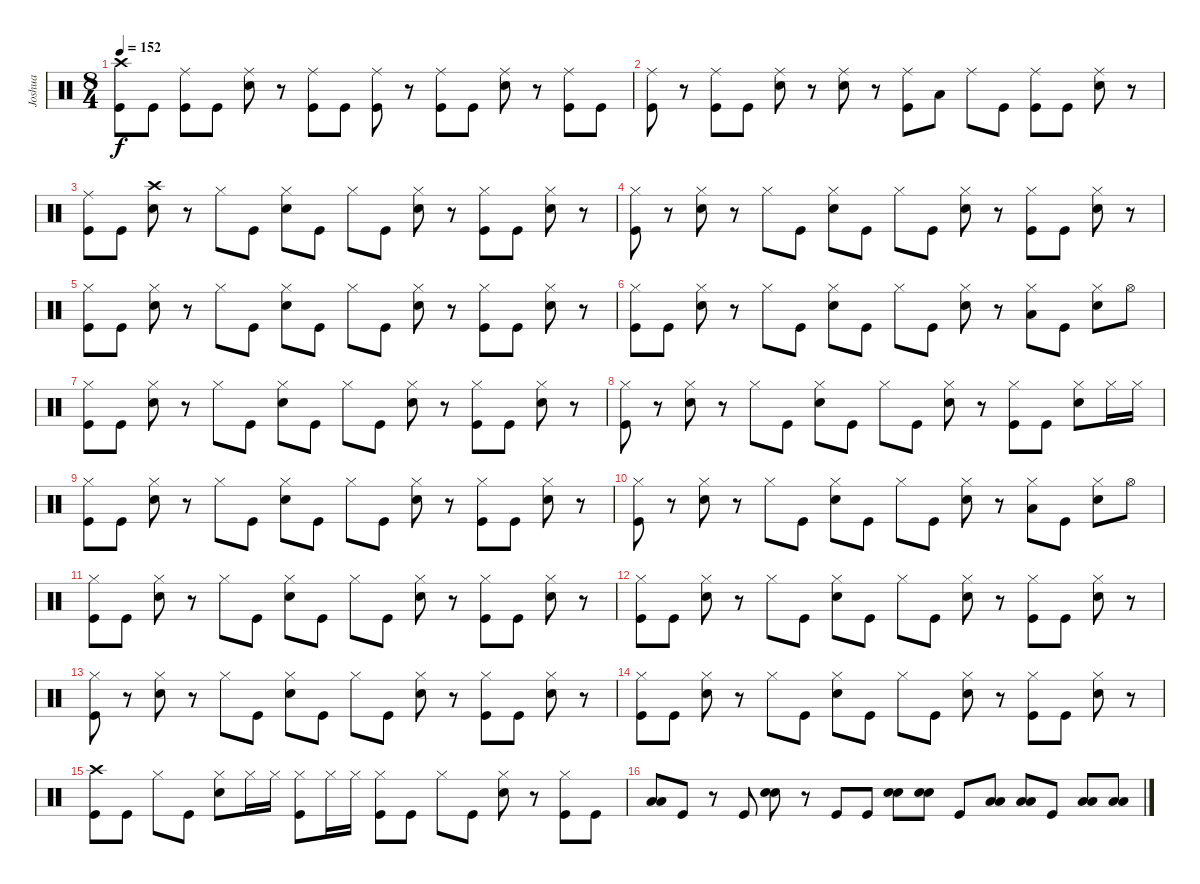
\track ("Joshua" "Joshua") {instrument percussion}
\staff {score}
\articulation defaults
\ts (8 4)
\tempo 152
\clef neutral
\ks c
("Crash high (hit)" "Kick (hit)").8{dy f} "Kick (hit)".8 ("Ride (middle)" "Kick (hit)").8 "Kick (hit)".8 ("Ride (middle)" "Electric Snare (hit)").8 r.8 ("Ride (middle)" "Kick (hit)").8 "Kick (hit)".8 ("Ride (middle)" "Kick (hit)").8 r.8 ("Ride (middle)" "Kick (hit)").8 "Kick (hit)".8 ("Ride (middle)" "Electric Snare (hit)").8 r.8 ("Ride (middle)" "Kick (hit)").8 "Kick (hit)".8 |
("Ride (middle)" "Kick (hit)").8 r.8 ("Ride (middle)" "Kick (hit)").8 "Kick (hit)".8 ("Ride (middle)" "Electric Snare (hit)").8 r.8 ("Ride (middle)" "Electric Snare (hit)").8 r.8 ("Ride (middle)" "Kick (hit)").8 "Low Tom (hit)".8 "Ride (middle)".8 "Kick (hit)".8 ("Ride (middle)" "Kick (hit)").8 "Kick (hit)".8 ("Ride (middle)" "Electric Snare (hit)").8 r.8 |
("Ride (middle)" "Kick (hit)").8 "Kick (hit)".8 ("Crash high (hit)" "Electric Snare (hit)").8 r.8 "Hi-Hat (closed)".8 "Kick (hit)".8 ("Hi-Hat (closed)" "Electric Snare (hit)").8 "Kick (hit)".8 "Hi-Hat (closed)".8 "Kick (hit)".8 ("Hi-Hat (closed)" "Electric Snare (hit)").8 r.8 ("Hi-Hat (closed)" "Kick (hit)").8 "Kick (hit)".8 ("Hi-Hat (closed)" "Electric Snare (hit)").8 r.8 |
("Hi-Hat (closed)" "Kick (hit)").8 r.8 ("Hi-Hat (closed)" "Electric Snare (hit)").8 r.8 "Hi-Hat (closed)".8 "Kick (hit)".8 ("Hi-Hat (closed)" "Electric Snare (hit)").8 "Kick (hit)".8 "Hi-Hat (closed)".8 "Kick (hit)".8 ("Hi-Hat (closed)" "Electric Snare (hit)").8 r.8 ("Hi-Hat (closed)" "Kick (hit)").8 "Kick (hit)".8 ("Hi-Hat (closed)" "Electric Snare (hit)").8 r.8 |
("Hi-Hat (closed)" "Kick (hit)").8 "Kick (hit)".8 ("Hi-Hat (closed)" "Electric Snare (hit)").8 r.8 "Hi-Hat (closed)".8 "Kick (hit)".8 ("Hi-Hat (closed)" "Electric Snare (hit)").8 "Kick (hit)".8 "Hi-Hat (closed)".8 "Kick (hit)".8 ("Hi-Hat (closed)" "Electric Snare (hit)").8 r.8 ("Hi-Hat (closed)" "Kick (hit)").8 "Kick (hit)".8 ("Hi-Hat (closed)" "Electric Snare (hit)").8 r.8 |
("Hi-Hat (closed)" "Kick (hit)").8 "Kick (hit)".8 ("Hi-Hat (closed)" "Electric Snare (hit)").8 r.8 "Hi-Hat (closed)".8 "Kick (hit)".8 ("Hi-Hat (closed)" "Electric Snare (hit)").8 "Kick (hit)".8 "Hi-Hat (closed)".8 "Kick (hit)".8 ("Hi-Hat (closed)" "Electric Snare (hit)").8 r.8 ("Low Tom (hit)" "Hi-Hat (closed)").8 "Kick (hit)".8 ("Hi-Hat (closed)" "Electric Snare (hit)").8 "Hi-Hat (open)".8 |
("Hi-Hat (closed)" "Kick (hit)").8 "Kick (hit)".8 ("Hi-Hat (closed)" "Electric Snare (hit)").8 r.8 "Hi-Hat (closed)".8 "Kick (hit)".8 ("Hi-Hat (closed)" "Electric Snare (hit)").8 "Kick (hit)".8 "Hi-Hat (closed)".8 "Kick (hit)".8 ("Hi-Hat (closed)" "Electric Snare (hit)").8 r.8 ("Hi-Hat (closed)" "Kick (hit)").8 "Kick (hit)".8 ("Hi-Hat (closed)" "Electric Snare (hit)").8 r.8 |
("Hi-Hat (closed)" "Kick (hit)").8 r.8 ("Hi-Hat (closed)" "Electric Snare (hit)").8 r.8 "Hi-Hat (closed)".8 "Kick (hit)".8 ("Hi-Hat (closed)" "Electric Snare (hit)").8 "Kick (hit)".8 "Hi-Hat (closed)".8 "Kick (hit)".8 ("Hi-Hat (closed)" "Electric Snare (hit)").8 r.8 ("Hi-Hat (closed)" "Kick (hit)").8 "Kick (hit)".8 ("Hi-Hat (closed)" "Electric Snare (hit)").8 "Hi-Hat (closed)".16 "Hi-Hat (closed)".16 |
("Hi-Hat (closed)" "Kick (hit)").8 "Kick (hit)".8 ("Hi-Hat (closed)" "Electric Snare (hit)").8 r.8 "Hi-Hat (closed)".8 "Kick (hit)".8 ("Hi-Hat (closed)" "Electric Snare (hit)").8 "Kick (hit)".8 "Hi-Hat (closed)".8 "Kick (hit)".8 ("Hi-Hat (closed)" "Electric Snare (hit)").8 r.8 ("Hi-Hat (closed)" "Kick (hit)").8 "Kick (hit)".8 ("Hi-Hat (closed)" "Electric Snare (hit)").8 r.8 |
("Hi-Hat (closed)" "Kick (hit)").8 r.8 ("Hi-Hat (closed)" "Electric Snare (hit)").8 r.8 "Hi-Hat (closed)".8 "Kick (hit)".8 ("Hi-Hat (closed)" "Electric Snare (hit)").8 "Kick (hit)".8 "Hi-Hat (closed)".8 "Kick (hit)".8 ("Hi-Hat (closed)" "Electric Snare (hit)").8 r.8 ("Low Tom (hit)" "Hi-Hat (closed)").8 "Kick (hit)".8 ("Hi-Hat (closed)" "Electric Snare (hit)").8 "Hi-Hat (open)".8 |
("Hi-Hat (closed)" "Kick (hit)").8 "Kick (hit)".8 ("Hi-Hat (closed)" "Electric Snare (hit)").8 r.8 "Hi-Hat (closed)".8 "Kick (hit)".8 ("Hi-Hat (closed)" "Electric Snare (hit)").8 "Kick (hit)".8 "Hi-Hat (closed)".8 "Kick (hit)".8 ("Hi-Hat (closed)" "Electric Snare (hit)").8 r.8 ("Hi-Hat (closed)" "Kick (hit)").8 "Kick (hit)".8 ("Hi-Hat (closed)" "Electric Snare (hit)").8 r.8 |
("Hi-Hat (closed)" "Kick (hit)").8 "Kick (hit)".8 ("Hi-Hat (closed)" "Electric Snare (hit)").8 r.8 "Hi-Hat (closed)".8 "Kick (hit)".8 ("Hi-Hat (closed)" "Electric Snare (hit)").8 "Kick (hit)".8 "Hi-Hat (closed)".8 "Kick (hit)".8 ("Hi-Hat (closed)" "Electric Snare (hit)").8 r.8 ("Hi-Hat (closed)" "Kick (hit)").8 "Kick (hit)".8 ("Hi-Hat (closed)" "Electric Snare (hit)").8 r.8 |
("Hi-Hat (closed)" "Kick (hit)").8 r.8 ("Hi-Hat (closed)" "Electric Snare (hit)").8 r.8 "Hi-Hat (closed)".8 "Kick (hit)".8 ("Hi-Hat (closed)" "Electric Snare (hit)").8 "Kick (hit)".8 "Hi-Hat (closed)".8 "Kick (hit)".8 ("Hi-Hat (closed)" "Electric Snare (hit)").8 r.8 ("Hi-Hat (closed)" "Kick (hit)").8 "Kick (hit)".8 ("Hi-Hat (closed)" "Electric Snare (hit)").8 r.8 |
("Hi-Hat (closed)" "Kick (hit)").8 "Kick (hit)".8 ("Hi-Hat (closed)" "Electric Snare (hit)").8 r.8 "Hi-Hat (closed)".8 "Kick (hit)".8 ("Hi-Hat (closed)" "Electric Snare (hit)").8 "Kick (hit)".8 "Hi-Hat (closed)".8 "Kick (hit)".8 ("Hi-Hat (closed)" "Electric Snare (hit)").8 r.8 ("Hi-Hat (closed)" "Kick (hit)").8 "Kick (hit)".8 ("Hi-Hat (closed)" "Electric Snare (hit)").8 r.8 |
("Crash high (hit)" "Kick (hit)").8 "Kick (hit)".8 "Hi-Hat (closed)".8 "Kick (hit)".8 ("Hi-Hat (closed)" "Electric Snare (hit)").8 "Hi-Hat (closed)".16 "Hi-Hat (closed)".16 ("Hi-Hat (closed)" "Kick (hit)").8 "Hi-Hat (closed)".16 "Hi-Hat (closed)".16 ("Hi-Hat (closed)" "Kick (hit)").8 "Kick (hit)".8 "Hi-Hat (closed)".8 "Kick (hit)".8 ("Hi-Hat (closed)" "Electric Snare (hit)").8 r.8 ("Hi-Hat (closed)" "Kick (hit)").8 "Kick (hit)".8 |
("Low Tom (hit)" "Low Tom (hit)").8 "Kick (hit)".8 r.8 "Kick (hit)".8 ("Electric Snare (hit)" "Electric Snare (hit)").8 r.8 "Kick (hit)".8 "Kick (hit)".8 ("Electric Snare (hit)" "Electric Snare (hit)").8 ("Electric Snare (hit)" "Electric Snare (hit)").8 "Kick (hit)".8 ("Low Tom (hit)" "Low Tom (hit)").8 ("Low Tom (hit)" "Low Tom (hit)").8 "Kick (hit)".8 ("Low Floor Tom (hit)" "Low Floor Tom (hit)").8 ("Low Floor Tom (hit)" "Low Floor Tom (hit)").8
